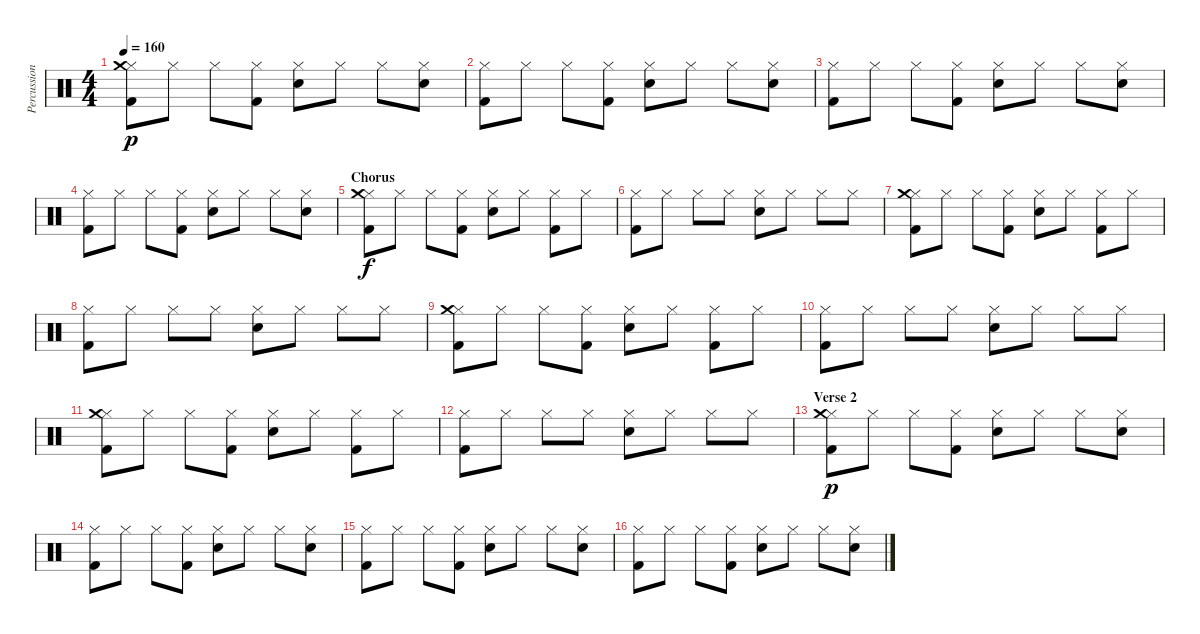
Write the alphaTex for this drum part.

\track ("Percussions" "Percussion") {instrument percussion}
\staff {score}
\articulation defaults
\ts (4 4)
\tempo 160
\clef neutral
\ks c
("Hi-Hat (closed)" "Kick (hit) 2" "Crash medium (hit)").8{dy p} "Hi-Hat (closed)".8 "Hi-Hat (closed)".8 ("Hi-Hat (closed)" "Kick (hit) 2").8 ("Hi-Hat (closed)" "Electric Snare (hit)").8 "Hi-Hat (closed)".8 "Hi-Hat (closed)".8 ("Hi-Hat (closed)" "Electric Snare (hit)").8 |
("Hi-Hat (closed)" "Kick (hit) 2").8 "Hi-Hat (closed)".8 "Hi-Hat (closed)".8 ("Hi-Hat (closed)" "Kick (hit) 2").8 ("Hi-Hat (closed)" "Electric Snare (hit)").8 "Hi-Hat (closed)".8 "Hi-Hat (closed)".8 ("Hi-Hat (closed)" "Electric Snare (hit)").8 |
("Hi-Hat (closed)" "Kick (hit) 2").8 "Hi-Hat (closed)".8 "Hi-Hat (closed)".8 ("Hi-Hat (closed)" "Kick (hit) 2").8 ("Hi-Hat (closed)" "Electric Snare (hit)").8 "Hi-Hat (closed)".8 "Hi-Hat (closed)".8 ("Hi-Hat (closed)" "Electric Snare (hit)").8 |
("Hi-Hat (closed)" "Kick (hit) 2").8 "Hi-Hat (closed)".8 "Hi-Hat (closed)".8 ("Hi-Hat (closed)" "Kick (hit) 2").8 ("Hi-Hat (closed)" "Electric Snare (hit)").8 "Hi-Hat (closed)".8 "Hi-Hat (closed)".8 ("Hi-Hat (closed)" "Electric Snare (hit)").8 |
\section ("" "Chorus")
("Hi-Hat (closed)" "Kick (hit) 2" "Crash medium (hit)").8{dy f} "Hi-Hat (closed)".8 "Hi-Hat (closed)".8 ("Hi-Hat (closed)" "Kick (hit) 2").8 ("Hi-Hat (closed)" "Electric Snare (hit)").8 "Hi-Hat (closed)".8 ("Hi-Hat (closed)" "Kick (hit) 2").8 "Hi-Hat (closed)".8 |
("Hi-Hat (closed)" "Kick (hit) 2").8 "Hi-Hat (closed)".8 "Hi-Hat (closed)".8 "Hi-Hat (closed)".8 ("Hi-Hat (closed)" "Electric Snare (hit)").8 "Hi-Hat (closed)".8 "Hi-Hat (closed)".8 "Hi-Hat (closed)".8 |
("Hi-Hat (closed)" "Kick (hit) 2" "Crash medium (hit)").8 "Hi-Hat (closed)".8 "Hi-Hat (closed)".8 ("Hi-Hat (closed)" "Kick (hit) 2").8 ("Hi-Hat (closed)" "Electric Snare (hit)").8 "Hi-Hat (closed)".8 ("Hi-Hat (closed)" "Kick (hit) 2").8 "Hi-Hat (closed)".8 |
("Hi-Hat (closed)" "Kick (hit) 2").8 "Hi-Hat (closed)".8 "Hi-Hat (closed)".8 "Hi-Hat (closed)".8 ("Hi-Hat (closed)" "Electric Snare (hit)").8 "Hi-Hat (closed)".8 "Hi-Hat (closed)".8 "Hi-Hat (closed)".8 |
("Hi-Hat (closed)" "Kick (hit) 2" "Crash medium (hit)").8 "Hi-Hat (closed)".8 "Hi-Hat (closed)".8 ("Hi-Hat (closed)" "Kick (hit) 2").8 ("Hi-Hat (closed)" "Electric Snare (hit)").8 "Hi-Hat (closed)".8 ("Hi-Hat (closed)" "Kick (hit) 2").8 "Hi-Hat (closed)".8 |
("Hi-Hat (closed)" "Kick (hit) 2").8 "Hi-Hat (closed)".8 "Hi-Hat (closed)".8 "Hi-Hat (closed)".8 ("Hi-Hat (closed)" "Electric Snare (hit)").8 "Hi-Hat (closed)".8 "Hi-Hat (closed)".8 "Hi-Hat (closed)".8 |
("Hi-Hat (closed)" "Kick (hit) 2" "Crash medium (hit)").8 "Hi-Hat (closed)".8 "Hi-Hat (closed)".8 ("Hi-Hat (closed)" "Kick (hit) 2").8 ("Hi-Hat (closed)" "Electric Snare (hit)").8 "Hi-Hat (closed)".8 ("Hi-Hat (closed)" "Kick (hit) 2").8 "Hi-Hat (closed)".8 |
("Hi-Hat (closed)" "Kick (hit) 2").8 "Hi-Hat (closed)".8 "Hi-Hat (closed)".8 "Hi-Hat (closed)".8 ("Hi-Hat (closed)" "Electric Snare (hit)").8 "Hi-Hat (closed)".8 "Hi-Hat (closed)".8 "Hi-Hat (closed)".8 |
\section ("" "Verse 2")
("Hi-Hat (closed)" "Kick (hit) 2" "Crash medium (hit)").8{dy p} "Hi-Hat (closed)".8 "Hi-Hat (closed)".8 ("Hi-Hat (closed)" "Kick (hit) 2").8 ("Hi-Hat (closed)" "Electric Snare (hit)").8 "Hi-Hat (closed)".8 "Hi-Hat (closed)".8 ("Hi-Hat (closed)" "Electric Snare (hit)").8 |
("Hi-Hat (closed)" "Kick (hit) 2").8 "Hi-Hat (closed)".8 "Hi-Hat (closed)".8 ("Hi-Hat (closed)" "Kick (hit) 2").8 ("Hi-Hat (closed)" "Electric Snare (hit)").8 "Hi-Hat (closed)".8 "Hi-Hat (closed)".8 ("Hi-Hat (closed)" "Electric Snare (hit)").8 |
("Hi-Hat (closed)" "Kick (hit) 2").8 "Hi-Hat (closed)".8 "Hi-Hat (closed)".8 ("Hi-Hat (closed)" "Kick (hit) 2").8 ("Hi-Hat (closed)" "Electric Snare (hit)").8 "Hi-Hat (closed)".8 "Hi-Hat (closed)".8 ("Hi-Hat (closed)" "Electric Snare (hit)").8 |
("Hi-Hat (closed)" "Kick (hit) 2").8 "Hi-Hat (closed)".8 "Hi-Hat (closed)".8 ("Hi-Hat (closed)" "Kick (hit) 2").8 ("Hi-Hat (closed)" "Electric Snare (hit)").8 "Hi-Hat (closed)".8 "Hi-Hat (closed)".8 ("Hi-Hat (closed)" "Electric Snare (hit)").8
